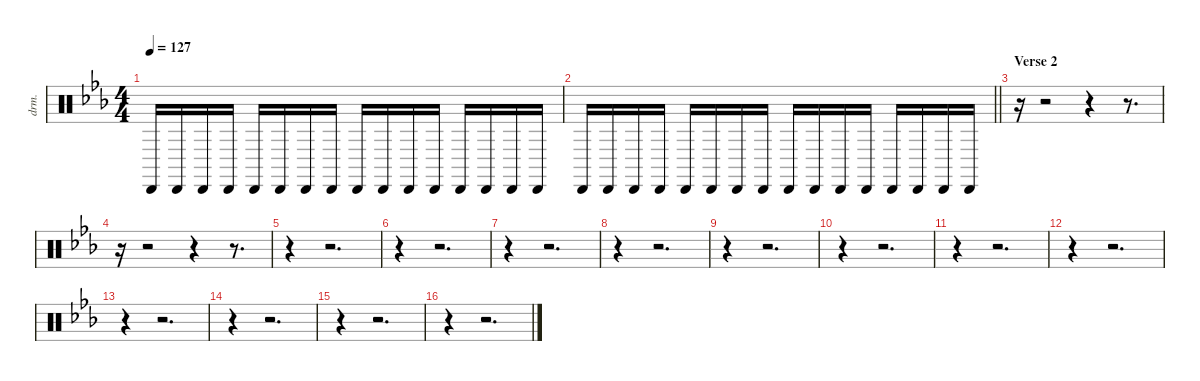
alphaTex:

\defaultSystemsLayout 4
\hideDynamics
\bracketExtendMode nobrackets
\otherSystemsTrackNameOrientation horizontal
\track ("Maracas" "drm.") {instrument percussion}
\staff {score}
\articulation defaults
\ts (4 4)
\tempo 127
\clef neutral
\ks eb "Cabasa (hit)"{acc forcenatural}.16{dy mf} "Cabasa (hit)"{acc forcenatural}.16{dy p} "Cabasa (hit)"{acc forcenatural}.16 "Cabasa (hit)"{acc forcenatural}.16 "Cabasa (hit)"{acc forcenatural}.16{dy mf} "Cabasa (hit)"{acc forcenatural}.16{dy p} "Cabasa (hit)"{acc forcenatural}.16 "Cabasa (hit)"{acc forcenatural}.16 "Cabasa (hit)"{acc forcenatural}.16{dy mf} "Cabasa (hit)"{acc forcenatural}.16{dy p} "Cabasa (hit)"{acc forcenatural}.16 "Cabasa (hit)"{acc forcenatural}.16 "Cabasa (hit)"{acc forcenatural}.16{dy mf} "Cabasa (hit)"{acc forcenatural}.16{dy p} "Cabasa (hit)"{acc forcenatural}.16 "Cabasa (hit)"{acc forcenatural}.16
|
\barLineRight lightlight "Cabasa (hit)"{acc forcenatural}.16{dy mf} "Cabasa (hit)"{acc forcenatural}.16{dy p} "Cabasa (hit)"{acc forcenatural}.16 "Cabasa (hit)"{acc forcenatural}.16 "Cabasa (hit)"{acc forcenatural}.16{dy mf} "Cabasa (hit)"{acc forcenatural}.16{dy p} "Cabasa (hit)"{acc forcenatural}.16 "Cabasa (hit)"{acc forcenatural}.16 "Cabasa (hit)"{acc forcenatural}.16{dy mf} "Cabasa (hit)"{acc forcenatural}.16{dy p} "Cabasa (hit)"{acc forcenatural}.16 "Cabasa (hit)"{acc forcenatural}.16 "Cabasa (hit)"{acc forcenatural}.16{dy mf} "Cabasa (hit)"{acc forcenatural}.16{dy p} "Cabasa (hit)"{acc forcenatural}.16 "Cabasa (hit)"{acc forcenatural}.16
|
\section ("" "Verse 2")
r.16 r.2 r.4 r.8{d} |
r.16 r.2 r.4 r.8{d} |
r.4 r.2{d} |
r.4 r.2{d} |
r.4 r.2{d} |
r.4 r.2{d} |
r.4 r.2{d} |
r.4 r.2{d} |
r.4 r.2{d} |
r.4 r.2{d} |
r.4 r.2{d} |
r.4 r.2{d} |
r.4 r.2{d} |
r.4 r.2{d}
